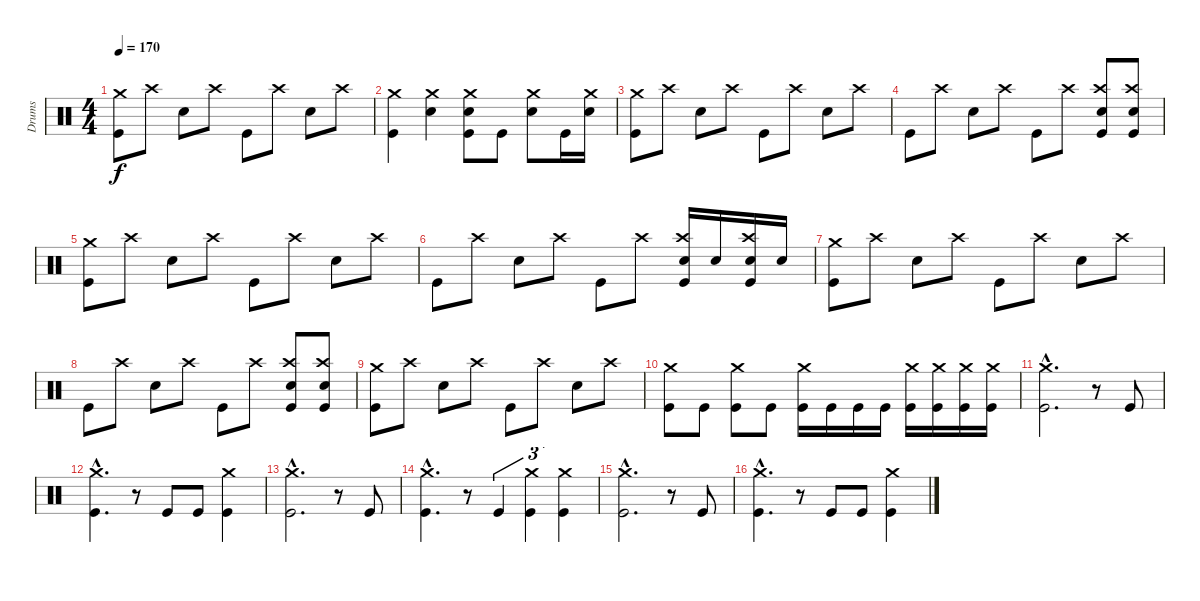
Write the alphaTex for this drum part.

\track ("Drums" "Drums") {instrument percussion}
\staff {score}
\articulation defaults
\ts (4 4)
\tempo 170
\clef neutral
\ks c
("Crash medium (hit)" "Kick (hit)").8{dy f} "Crash high (hit)".8 "Electric Snare (hit)".8 "Crash high (hit)".8 "Kick (hit)".8 "Crash high (hit)".8 "Electric Snare (hit)".8 "Crash high (hit)".8 |
("Crash medium (hit)" "Kick (hit)").4 ("Crash medium (hit)" "Electric Snare (hit)").4 ("Crash medium (hit)" "Electric Snare (hit)" "Kick (hit)").8 "Kick (hit)".8 ("Crash medium (hit)" "Electric Snare (hit)").8 "Kick (hit)".16 ("Crash medium (hit)" "Electric Snare (hit)").16 |
("Crash medium (hit)" "Kick (hit)").8 "Crash high (hit)".8 "Electric Snare (hit)".8 "Crash high (hit)".8 "Kick (hit)".8 "Crash high (hit)".8 "Electric Snare (hit)".8 "Crash high (hit)".8 |
"Kick (hit)".8 "Crash high (hit)".8 "Electric Snare (hit)".8 "Crash high (hit)".8 "Kick (hit)".8 "Crash high (hit)".8 ("Crash high (hit)" "Electric Snare (hit)" "Kick (hit)").8 ("Crash high (hit)" "Electric Snare (hit)" "Kick (hit)").8 |
("Crash medium (hit)" "Kick (hit)").8 "Crash high (hit)".8 "Electric Snare (hit)".8 "Crash high (hit)".8 "Kick (hit)".8 "Crash high (hit)".8 "Electric Snare (hit)".8 "Crash high (hit)".8 |
"Kick (hit)".8 "Crash high (hit)".8 "Electric Snare (hit)".8 "Crash high (hit)".8 "Kick (hit)".8 "Crash high (hit)".8 ("Crash high (hit)" "Electric Snare (hit)" "Kick (hit)").16 "Electric Snare (hit)".16 ("Crash high (hit)" "Electric Snare (hit)" "Kick (hit)").16 "Electric Snare (hit)".16 |
("Crash medium (hit)" "Kick (hit)").8 "Crash high (hit)".8 "Electric Snare (hit)".8 "Crash high (hit)".8 "Kick (hit)".8 "Crash high (hit)".8 "Electric Snare (hit)".8 "Crash high (hit)".8 |
"Kick (hit)".8 "Crash high (hit)".8 "Electric Snare (hit)".8 "Crash high (hit)".8 "Kick (hit)".8 "Crash high (hit)".8 ("Crash high (hit)" "Electric Snare (hit)" "Kick (hit)").8 ("Crash high (hit)" "Electric Snare (hit)" "Kick (hit)").8 |
("Crash medium (hit)" "Kick (hit)").8 "Crash high (hit)".8 "Electric Snare (hit)".8 "Crash high (hit)".8 "Kick (hit)".8 "Crash high (hit)".8 "Electric Snare (hit)".8 "Crash high (hit)".8 |
("Crash medium (hit)" "Kick (hit)").8 "Kick (hit)".8 ("Crash medium (hit)" "Kick (hit)").8 "Kick (hit)".8 ("Crash medium (hit)" "Kick (hit)").16 "Kick (hit)".16 "Kick (hit)".16 "Kick (hit)".16 ("Crash medium (hit)" "Kick (hit)").16 ("Crash medium (hit)" "Kick (hit)").16 ("Crash medium (hit)" "Kick (hit)").16 ("Crash medium (hit)" "Kick (hit)").16 |
("Crash medium (hit)"{hac} "Kick (hit)"{hac}).2{d} r.8 "Kick (hit)".8 |
("Crash medium (hit)"{hac} "Kick (hit)"{hac}).4{d} r.8 "Kick (hit)".8 "Kick (hit)".8 ("Crash medium (hit)" "Kick (hit)").4 |
("Crash medium (hit)"{hac} "Kick (hit)"{hac}).2{d} r.8 "Kick (hit)".8 |
("Crash medium (hit)"{hac} "Kick (hit)"{hac}).4{d} r.8 "Kick (hit)".4{tu (3 2)} ("Crash medium (hit)" "Kick (hit)").4{tu (3 2)} ("Crash medium (hit)" "Kick (hit)").4{tu (3 2)} |
("Crash medium (hit)"{hac} "Kick (hit)"{hac}).2{d} r.8 "Kick (hit)".8 |
("Crash medium (hit)"{hac} "Kick (hit)"{hac}).4{d} r.8 "Kick (hit)".8 "Kick (hit)".8 ("Crash medium (hit)" "Kick (hit)").4
